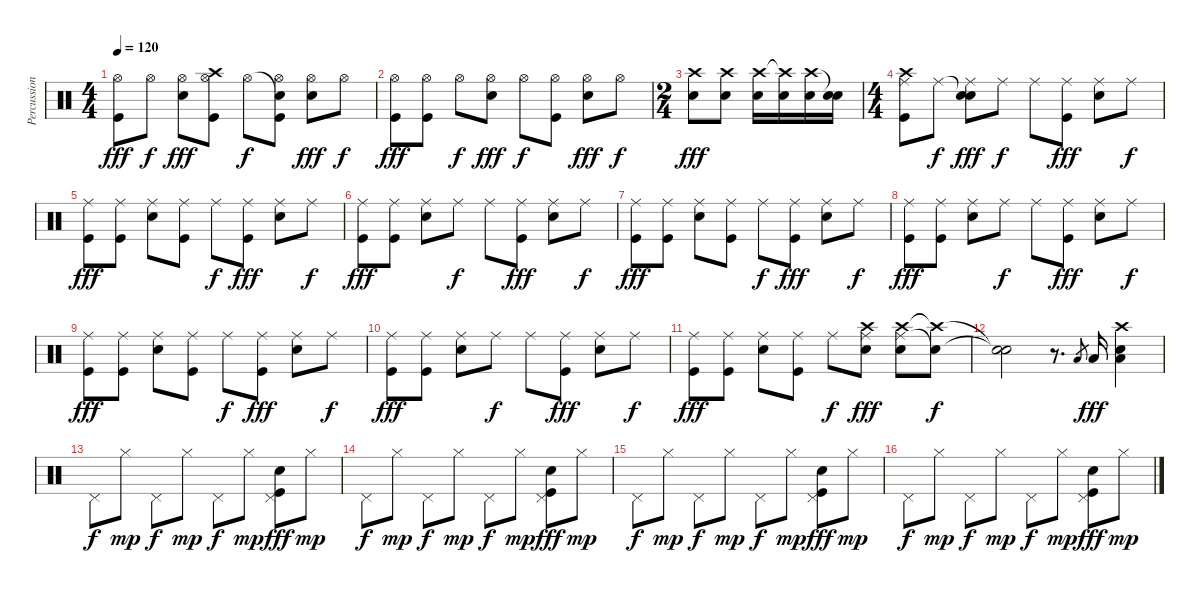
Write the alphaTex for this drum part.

\track ("Percussion" "Percussion") {instrument percussion}
\staff {score}
\articulation defaults
\ts (4 4)
\tempo 120
\clef neutral
\ks c
("Hi-Hat (open)" "Kick (hit)").8{dy fff} "Hi-Hat (open)".8{dy f} ("Hi-Hat (open)" "Snare (hit) 2").8{dy fff} ("Crash high (hit)" "Hi-Hat (open)" "Kick (hit)").8 "Hi-Hat (open)".8{dy f} ("Snare (hit)"{t} "Hi-Hat (open)" "Kick (hit)").8 ("Hi-Hat (open)" "Snare (hit) 2").8{dy fff} "Hi-Hat (open)".8{dy f} |
("Hi-Hat (open)" "Kick (hit)").8{dy fff} ("Hi-Hat (open)" "Kick (hit)").8 "Hi-Hat (open)".8{dy f} ("Hi-Hat (open)" "Snare (hit) 2").8{dy fff} "Hi-Hat (open)".8{dy f} ("Hi-Hat (open)" "Kick (hit)").8 ("Hi-Hat (open)" "Snare (hit) 2").8{dy fff} "Hi-Hat (open)".8{dy f} |
\ts (2 4)
("Crash high (hit)" "Snare (hit) 2").8{dy fff} ("Crash high (hit)" "Snare (hit) 2").8 ("Crash high (hit)" "Snare (hit) 2").16 ("Crash high (hit)"{t} "Snare (hit) 2").16 ("Crash high (hit)" "Snare (hit) 2").16 ("Snare (hit)"{t} "Snare (hit) 2").16 |
\ts (4 4)
("Crash high (hit)" "Ride (middle)" "Kick (hit)").8 "Ride (middle)".8{dy f} ("Snare (hit)"{t} "Ride (middle)" "Snare (hit) 2").8{dy fff} "Ride (middle)".8{dy f} "Ride (middle)".8 ("Ride (middle)" "Kick (hit)").8{dy fff} ("Ride (middle)" "Snare (hit) 2").8 "Ride (middle)".8{dy f} |
("Ride (middle)" "Kick (hit)").8{dy fff} ("Ride (middle)" "Kick (hit)").8 ("Ride (middle)" "Snare (hit) 2").8 ("Ride (middle)" "Kick (hit)").8 "Ride (middle)".8{dy f} ("Ride (middle)" "Kick (hit)").8{dy fff} ("Ride (middle)" "Snare (hit) 2").8 "Ride (middle)".8{dy f} |
("Ride (middle)" "Kick (hit)").8{dy fff} ("Ride (middle)" "Kick (hit)").8 ("Ride (middle)" "Snare (hit) 2").8 "Ride (middle)".8{dy f} "Ride (middle)".8 ("Ride (middle)" "Kick (hit)").8{dy fff} ("Ride (middle)" "Snare (hit) 2").8 "Ride (middle)".8{dy f} |
("Ride (middle)" "Kick (hit)").8{dy fff} ("Ride (middle)" "Kick (hit)").8 ("Ride (middle)" "Snare (hit) 2").8 ("Ride (middle)" "Kick (hit)").8 "Ride (middle)".8{dy f} ("Ride (middle)" "Kick (hit)").8{dy fff} ("Ride (middle)" "Snare (hit) 2").8 "Ride (middle)".8{dy f} |
("Ride (middle)" "Kick (hit)").8{dy fff} ("Ride (middle)" "Kick (hit)").8 ("Ride (middle)" "Snare (hit) 2").8 "Ride (middle)".8{dy f} "Ride (middle)".8 ("Ride (middle)" "Kick (hit)").8{dy fff} ("Ride (middle)" "Snare (hit) 2").8 "Ride (middle)".8{dy f} |
("Ride (middle)" "Kick (hit)").8{dy fff} ("Ride (middle)" "Kick (hit)").8 ("Ride (middle)" "Snare (hit) 2").8 ("Ride (middle)" "Kick (hit)").8 "Ride (middle)".8{dy f} ("Ride (middle)" "Kick (hit)").8{dy fff} ("Ride (middle)" "Snare (hit) 2").8 "Ride (middle)".8{dy f} |
("Ride (middle)" "Kick (hit)").8{dy fff} ("Ride (middle)" "Kick (hit)").8 ("Ride (middle)" "Snare (hit) 2").8 "Ride (middle)".8{dy f} "Ride (middle)".8 ("Ride (middle)" "Kick (hit)").8{dy fff} ("Ride (middle)" "Snare (hit) 2").8 "Ride (middle)".8{dy f} |
("Ride (middle)" "Kick (hit)").8{dy fff} ("Ride (middle)" "Kick (hit)").8 ("Ride (middle)" "Snare (hit) 2").8 ("Ride (middle)" "Kick (hit)").8 "Ride (middle)".8{dy f} ("Crash high (hit)" "Ride (middle)" "Snare (hit) 2").8{dy fff} ("Crash high (hit)" "Ride (middle)" "Snare (hit) 2").8 ("Crash high (hit)"{t} "Snare (hit) 2"{t}).8{dy f} |
("Snare (hit)"{t} "Snare (hit)"{t}).2 r.8{d} "Low Tom (hit)".8{gr} "Low Tom (hit)".16{dy fff} ("Snare (hit) 2" "Low Tom (hit)" "Crash high (hit)").4 |
"Pedal Hi-Hat (hit)".8{dy f} "Hi-Hat (closed)".8{dy mp} "Pedal Hi-Hat (hit)".8{dy f} "Hi-Hat (closed)".8{dy mp} "Pedal Hi-Hat (hit)".8{dy f} "Hi-Hat (closed)".8{dy mp} ("Pedal Hi-Hat (hit)" "Snare (hit) 2" "Kick (hit)").8{dy fff} "Hi-Hat (closed)".8{dy mp} |
"Pedal Hi-Hat (hit)".8{dy f} "Hi-Hat (closed)".8{dy mp} "Pedal Hi-Hat (hit)".8{dy f} "Hi-Hat (closed)".8{dy mp} "Pedal Hi-Hat (hit)".8{dy f} "Hi-Hat (closed)".8{dy mp} ("Pedal Hi-Hat (hit)" "Snare (hit) 2" "Kick (hit)").8{dy fff} "Hi-Hat (closed)".8{dy mp} |
"Pedal Hi-Hat (hit)".8{dy f} "Hi-Hat (closed)".8{dy mp} "Pedal Hi-Hat (hit)".8{dy f} "Hi-Hat (closed)".8{dy mp} "Pedal Hi-Hat (hit)".8{dy f} "Hi-Hat (closed)".8{dy mp} ("Pedal Hi-Hat (hit)" "Snare (hit) 2" "Kick (hit)").8{dy fff} "Hi-Hat (closed)".8{dy mp} |
"Pedal Hi-Hat (hit)".8{dy f} "Hi-Hat (closed)".8{dy mp} "Pedal Hi-Hat (hit)".8{dy f} "Hi-Hat (closed)".8{dy mp} "Pedal Hi-Hat (hit)".8{dy f} "Hi-Hat (closed)".8{dy mp} ("Pedal Hi-Hat (hit)" "Snare (hit) 2" "Kick (hit)").8{dy fff} "Hi-Hat (closed)".8{dy mp}
